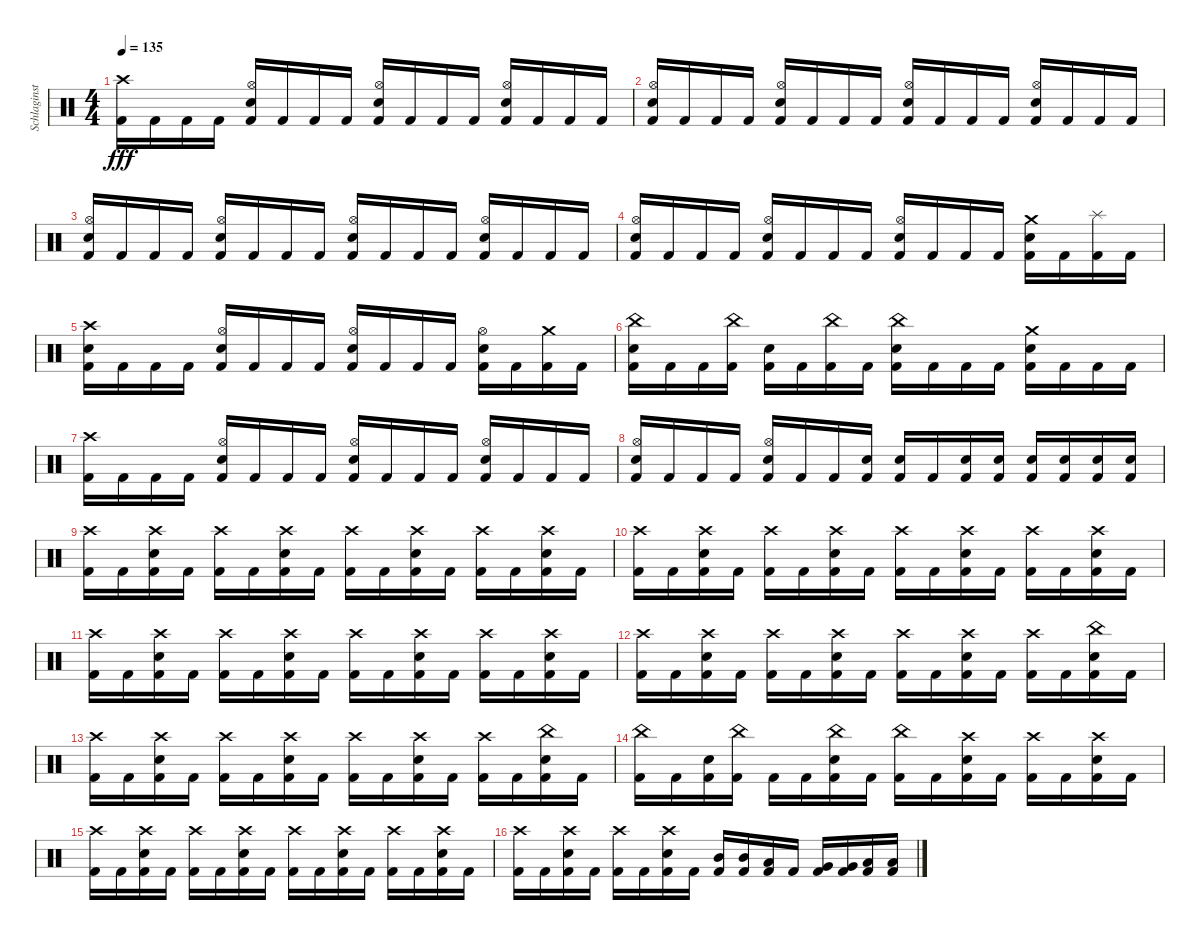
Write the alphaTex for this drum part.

\track ("Schlaginstrumente - Auswahl" "Schlaginst") {instrument percussion}
\staff {score}
\articulation defaults
\ts (4 4)
\tempo 135
\clef neutral
\ks c
("Crash high (hit)" "Kick (hit) 2").16{dy fff} "Kick (hit) 2".16 "Kick (hit) 2".16 "Kick (hit) 2".16 ("Hi-Hat (open)" "Snare (hit) 2" "Kick (hit) 2").16 "Kick (hit) 2".16 "Kick (hit) 2".16 "Kick (hit) 2".16 ("Hi-Hat (open)" "Snare (hit) 2" "Kick (hit) 2").16 "Kick (hit) 2".16 "Kick (hit) 2".16 "Kick (hit) 2".16 ("Hi-Hat (open)" "Snare (hit) 2" "Kick (hit) 2").16 "Kick (hit) 2".16 "Kick (hit) 2".16 "Kick (hit) 2".16 |
("Hi-Hat (open)" "Snare (hit) 2" "Kick (hit) 2").16 "Kick (hit) 2".16 "Kick (hit) 2".16 "Kick (hit) 2".16 ("Hi-Hat (open)" "Snare (hit) 2" "Kick (hit) 2").16 "Kick (hit) 2".16 "Kick (hit) 2".16 "Kick (hit) 2".16 ("Hi-Hat (open)" "Snare (hit) 2" "Kick (hit) 2").16 "Kick (hit) 2".16 "Kick (hit) 2".16 "Kick (hit) 2".16 ("Hi-Hat (open)" "Snare (hit) 2" "Kick (hit) 2").16 "Kick (hit) 2".16 "Kick (hit) 2".16 "Kick (hit) 2".16 |
("Hi-Hat (open)" "Snare (hit) 2" "Kick (hit) 2").16 "Kick (hit) 2".16 "Kick (hit) 2".16 "Kick (hit) 2".16 ("Hi-Hat (open)" "Snare (hit) 2" "Kick (hit) 2").16 "Kick (hit) 2".16 "Kick (hit) 2".16 "Kick (hit) 2".16 ("Hi-Hat (open)" "Snare (hit) 2" "Kick (hit) 2").16 "Kick (hit) 2".16 "Kick (hit) 2".16 "Kick (hit) 2".16 ("Hi-Hat (open)" "Snare (hit) 2" "Kick (hit) 2").16 "Kick (hit) 2".16 "Kick (hit) 2".16 "Kick (hit) 2".16 |
("Hi-Hat (open)" "Snare (hit) 2" "Kick (hit) 2").16 "Kick (hit) 2".16 "Kick (hit) 2".16 "Kick (hit) 2".16 ("Hi-Hat (open)" "Snare (hit) 2" "Kick (hit) 2").16 "Kick (hit) 2".16 "Kick (hit) 2".16 "Kick (hit) 2".16 ("Hi-Hat (open)" "Snare (hit) 2" "Kick (hit) 2").16 "Kick (hit) 2".16 "Kick (hit) 2".16 "Kick (hit) 2".16 ("Crash medium (hit)" "Snare (hit) 2" "Kick (hit) 2").16 "Kick (hit) 2".16 ("Splash (hit)" "Kick (hit) 2").16 "Kick (hit) 2".16 |
("Crash high (hit)" "Snare (hit) 2" "Kick (hit) 2").16 "Kick (hit) 2".16 "Kick (hit) 2".16 "Kick (hit) 2".16 ("Hi-Hat (open)" "Snare (hit) 2" "Kick (hit) 2").16 "Kick (hit) 2".16 "Kick (hit) 2".16 "Kick (hit) 2".16 ("Hi-Hat (open)" "Snare (hit) 2" "Kick (hit) 2").16 "Kick (hit) 2".16 "Kick (hit) 2".16 "Kick (hit) 2".16 ("Hi-Hat (open)" "Snare (hit) 2" "Kick (hit) 2").16 "Kick (hit) 2".16 ("Crash medium (hit)" "Kick (hit) 2").16 "Kick (hit) 2".16 |
("China (hit)" "Snare (hit) 2" "Kick (hit) 2").16 "Kick (hit) 2".16 "Kick (hit) 2".16 ("China (hit)" "Kick (hit) 2").16 ("Snare (hit) 2" "Kick (hit) 2").16 "Kick (hit) 2".16 ("China (hit)" "Kick (hit) 2").16 "Kick (hit) 2".16 ("China (hit)" "Snare (hit) 2" "Kick (hit) 2").16 "Kick (hit) 2".16 "Kick (hit) 2".16 "Kick (hit) 2".16 ("Crash medium (hit)" "Snare (hit) 2" "Kick (hit) 2").16 "Kick (hit) 2".16 "Kick (hit) 2".16 "Kick (hit) 2".16 |
("Crash high (hit)" "Kick (hit) 2").16 "Kick (hit) 2".16 "Kick (hit) 2".16 "Kick (hit) 2".16 ("Hi-Hat (open)" "Snare (hit) 2" "Kick (hit) 2").16 "Kick (hit) 2".16 "Kick (hit) 2".16 "Kick (hit) 2".16 ("Hi-Hat (open)" "Snare (hit) 2" "Kick (hit) 2").16 "Kick (hit) 2".16 "Kick (hit) 2".16 "Kick (hit) 2".16 ("Hi-Hat (open)" "Snare (hit) 2" "Kick (hit) 2").16 "Kick (hit) 2".16 "Kick (hit) 2".16 "Kick (hit) 2".16 |
("Hi-Hat (open)" "Snare (hit) 2" "Kick (hit) 2").16 "Kick (hit) 2".16 "Kick (hit) 2".16 "Kick (hit) 2".16 ("Hi-Hat (open)" "Snare (hit) 2" "Kick (hit) 2").16 "Kick (hit) 2".16 "Kick (hit) 2".16 ("Snare (hit) 2" "Kick (hit) 2").16 ("Snare (hit) 2" "Kick (hit) 2").16 "Kick (hit) 2".16 ("Snare (hit) 2" "Kick (hit) 2").16 ("Snare (hit) 2" "Kick (hit) 2").16 ("Snare (hit) 2" "Kick (hit) 2").16 ("Snare (hit) 2" "Kick (hit) 2").16 ("Snare (hit) 2" "Kick (hit) 2").16 ("Snare (hit) 2" "Kick (hit) 2").16 |
("Crash high (hit)" "Kick (hit) 2").16 "Kick (hit) 2".16 ("Crash high (hit)" "Snare (hit) 2" "Kick (hit) 2").16 "Kick (hit) 2".16 ("Crash high (hit)" "Kick (hit) 2").16 "Kick (hit) 2".16 ("Crash high (hit)" "Snare (hit) 2" "Kick (hit) 2").16 "Kick (hit) 2".16 ("Crash high (hit)" "Kick (hit) 2").16 "Kick (hit) 2".16 ("Crash high (hit)" "Snare (hit) 2" "Kick (hit) 2").16 "Kick (hit) 2".16 ("Crash high (hit)" "Kick (hit) 2").16 "Kick (hit) 2".16 ("Crash high (hit)" "Snare (hit) 2" "Kick (hit) 2").16 "Kick (hit) 2".16 |
("Crash high (hit)" "Kick (hit) 2").16 "Kick (hit) 2".16 ("Crash high (hit)" "Snare (hit) 2" "Kick (hit) 2").16 "Kick (hit) 2".16 ("Crash high (hit)" "Kick (hit) 2").16 "Kick (hit) 2".16 ("Crash high (hit)" "Snare (hit) 2" "Kick (hit) 2").16 "Kick (hit) 2".16 ("Crash high (hit)" "Kick (hit) 2").16 "Kick (hit) 2".16 ("Crash high (hit)" "Snare (hit) 2" "Kick (hit) 2").16 "Kick (hit) 2".16 ("Crash high (hit)" "Kick (hit) 2").16 "Kick (hit) 2".16 ("Crash high (hit)" "Snare (hit) 2" "Kick (hit) 2").16 "Kick (hit) 2".16 |
("Crash high (hit)" "Kick (hit) 2").16 "Kick (hit) 2".16 ("Crash high (hit)" "Snare (hit) 2" "Kick (hit) 2").16 "Kick (hit) 2".16 ("Crash high (hit)" "Kick (hit) 2").16 "Kick (hit) 2".16 ("Crash high (hit)" "Snare (hit) 2" "Kick (hit) 2").16 "Kick (hit) 2".16 ("Crash high (hit)" "Kick (hit) 2").16 "Kick (hit) 2".16 ("Crash high (hit)" "Snare (hit) 2" "Kick (hit) 2").16 "Kick (hit) 2".16 ("Crash high (hit)" "Kick (hit) 2").16 "Kick (hit) 2".16 ("Crash high (hit)" "Snare (hit) 2" "Kick (hit) 2").16 "Kick (hit) 2".16 |
("Crash high (hit)" "Kick (hit) 2").16 "Kick (hit) 2".16 ("Crash high (hit)" "Snare (hit) 2" "Kick (hit) 2").16 "Kick (hit) 2".16 ("Crash high (hit)" "Kick (hit) 2").16 "Kick (hit) 2".16 ("Crash high (hit)" "Snare (hit) 2" "Kick (hit) 2").16 "Kick (hit) 2".16 ("Crash high (hit)" "Kick (hit) 2").16 "Kick (hit) 2".16 ("Crash high (hit)" "Snare (hit) 2" "Kick (hit) 2").16 "Kick (hit) 2".16 ("Crash high (hit)" "Kick (hit) 2").16 "Kick (hit) 2".16 ("China (hit)" "Snare (hit) 2" "Kick (hit) 2").16 "Kick (hit) 2".16 |
("Crash high (hit)" "Kick (hit) 2").16 "Kick (hit) 2".16 ("Crash high (hit)" "Snare (hit) 2" "Kick (hit) 2").16 "Kick (hit) 2".16 ("Crash high (hit)" "Kick (hit) 2").16 "Kick (hit) 2".16 ("Crash high (hit)" "Snare (hit) 2" "Kick (hit) 2").16 "Kick (hit) 2".16 ("Crash high (hit)" "Kick (hit) 2").16 "Kick (hit) 2".16 ("Crash high (hit)" "Snare (hit) 2" "Kick (hit) 2").16 "Kick (hit) 2".16 ("Crash high (hit)" "Kick (hit) 2").16 "Kick (hit) 2".16 ("China (hit)" "Snare (hit) 2" "Kick (hit) 2").16 "Kick (hit) 2".16 |
("China (hit)" "Kick (hit) 2").16 "Kick (hit) 2".16 ("Snare (hit) 2" "Kick (hit) 2").16 ("China (hit)" "Kick (hit) 2").16 "Kick (hit) 2".16 "Kick (hit) 2".16 ("China (hit)" "Snare (hit) 2" "Kick (hit) 2").16 "Kick (hit) 2".16 ("China (hit)" "Kick (hit) 2").16 "Kick (hit) 2".16 ("Crash high (hit)" "Snare (hit) 2" "Kick (hit) 2").16 "Kick (hit) 2".16 ("Crash high (hit)" "Kick (hit) 2").16 "Kick (hit) 2".16 ("Crash high (hit)" "Snare (hit) 2" "Kick (hit) 2").16 "Kick (hit) 2".16 |
("Crash high (hit)" "Kick (hit) 2").16 "Kick (hit) 2".16 ("Crash high (hit)" "Snare (hit) 2" "Kick (hit) 2").16 "Kick (hit) 2".16 ("Crash high (hit)" "Kick (hit) 2").16 "Kick (hit) 2".16 ("Crash high (hit)" "Snare (hit) 2" "Kick (hit) 2").16 "Kick (hit) 2".16 ("Crash high (hit)" "Kick (hit) 2").16 "Kick (hit) 2".16 ("Crash high (hit)" "Snare (hit) 2" "Kick (hit) 2").16 "Kick (hit) 2".16 ("Crash high (hit)" "Kick (hit) 2").16 "Kick (hit) 2".16 ("Crash high (hit)" "Snare (hit) 2" "Kick (hit) 2").16 "Kick (hit) 2".16 |
("Crash high (hit)" "Kick (hit) 2").16 "Kick (hit) 2".16 ("Crash high (hit)" "Snare (hit) 2" "Kick (hit) 2").16 "Kick (hit) 2".16 ("Crash high (hit)" "Kick (hit) 2").16 "Kick (hit) 2".16 ("Crash high (hit)" "Snare (hit) 2" "Kick (hit) 2").16 "Kick (hit) 2".16 ("Mid Tom (hit)" "Kick (hit) 2").16 ("Mid Tom (hit)" "Kick (hit) 2").16 ("Low Tom (hit)" "Kick (hit) 2").16 "Kick (hit) 2".16 ("Very Low Tom (hit)" "Kick (hit) 2").16 ("Very Low Tom (hit)" "Kick (hit) 2").16 ("Low Floor Tom (hit)" "Kick (hit) 2").16 ("Low Floor Tom (hit)" "Kick (hit) 2").16
